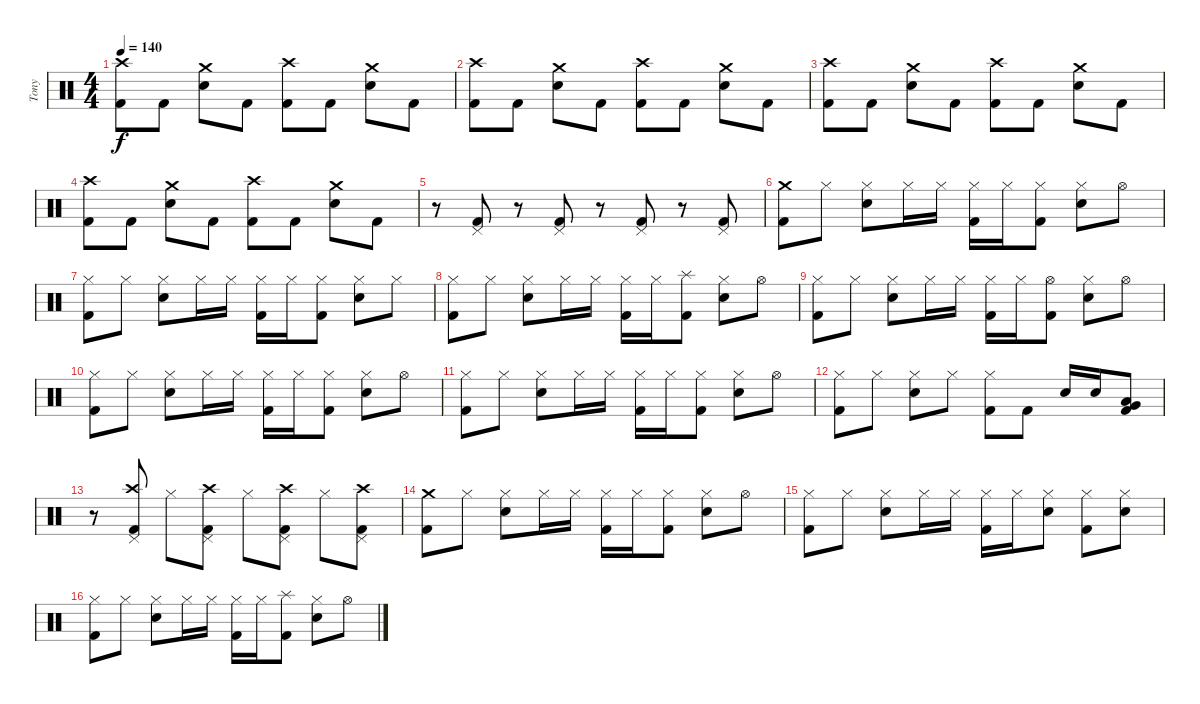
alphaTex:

\track ("Tony" "Tony") {instrument percussion}
\staff {score}
\articulation defaults
\ts (4 4)
\tempo 140
\clef neutral
\ks c
("Kick (hit) 2" "Crash high (hit)").8{dy f} "Kick (hit) 2".8 ("Electric Snare (hit)" "Crash medium (hit)").8 "Kick (hit) 2".8 ("Kick (hit) 2" "Crash high (hit)").8 "Kick (hit) 2".8 ("Electric Snare (hit)" "Crash medium (hit)").8 "Kick (hit) 2".8 |
("Kick (hit) 2" "Crash high (hit)").8 "Kick (hit) 2".8 ("Electric Snare (hit)" "Crash medium (hit)").8 "Kick (hit) 2".8 ("Kick (hit) 2" "Crash high (hit)").8 "Kick (hit) 2".8 ("Electric Snare (hit)" "Crash medium (hit)").8 "Kick (hit) 2".8 |
("Kick (hit) 2" "Crash high (hit)").8 "Kick (hit) 2".8 ("Electric Snare (hit)" "Crash medium (hit)").8 "Kick (hit) 2".8 ("Kick (hit) 2" "Crash high (hit)").8 "Kick (hit) 2".8 ("Electric Snare (hit)" "Crash medium (hit)").8 "Kick (hit) 2".8 |
("Kick (hit) 2" "Crash high (hit)").8 "Kick (hit) 2".8 ("Electric Snare (hit)" "Crash medium (hit)").8 "Kick (hit) 2".8 ("Kick (hit) 2" "Crash high (hit)").8 "Kick (hit) 2".8 ("Electric Snare (hit)" "Crash medium (hit)").8 "Kick (hit) 2".8 |
r.8 ("Kick (hit) 2" "Pedal Hi-Hat (hit)").8 r.8 ("Kick (hit) 2" "Pedal Hi-Hat (hit)").8 r.8 ("Kick (hit) 2" "Pedal Hi-Hat (hit)").8 r.8 ("Kick (hit) 2" "Pedal Hi-Hat (hit)").8 |
("Crash medium (hit)" "Kick (hit) 2").8 "Hi-Hat (closed)".8 ("Hi-Hat (closed)" "Electric Snare (hit)").8 "Hi-Hat (closed)".16 "Hi-Hat (closed)".16 ("Hi-Hat (closed)" "Kick (hit) 2").16 "Hi-Hat (closed)".16 ("Hi-Hat (closed)" "Kick (hit) 2").8 ("Hi-Hat (closed)" "Electric Snare (hit)").8 "Hi-Hat (open)".8 |
("Hi-Hat (closed)" "Kick (hit) 2").8 "Hi-Hat (closed)".8 ("Hi-Hat (closed)" "Electric Snare (hit)").8 "Hi-Hat (closed)".16 "Hi-Hat (closed)".16 ("Hi-Hat (closed)" "Kick (hit) 2").16 "Hi-Hat (closed)".16 ("Hi-Hat (closed)" "Kick (hit) 2").8 ("Hi-Hat (closed)" "Electric Snare (hit)").8 "Hi-Hat (closed)".8 |
("Hi-Hat (closed)" "Kick (hit) 2").8 "Hi-Hat (closed)".8 ("Hi-Hat (closed)" "Electric Snare (hit)").8 "Hi-Hat (closed)".16 "Hi-Hat (closed)".16 ("Hi-Hat (closed)" "Kick (hit) 2").16 "Hi-Hat (closed)".16 ("Splash (hit)" "Kick (hit) 2").8 ("Hi-Hat (closed)" "Electric Snare (hit)").8 "Hi-Hat (open)".8 |
("Hi-Hat (closed)" "Kick (hit) 2").8 "Hi-Hat (closed)".8 ("Hi-Hat (closed)" "Electric Snare (hit)").8 "Hi-Hat (closed)".16 "Hi-Hat (closed)".16 ("Hi-Hat (closed)" "Kick (hit) 2").16 "Hi-Hat (closed)".16 ("Hi-Hat (open)" "Kick (hit) 2").8 ("Hi-Hat (closed)" "Electric Snare (hit)").8 "Hi-Hat (open)".8 |
("Hi-Hat (closed)" "Kick (hit) 2").8 "Hi-Hat (closed)".8 ("Hi-Hat (closed)" "Electric Snare (hit)").8 "Hi-Hat (closed)".16 "Hi-Hat (closed)".16 ("Hi-Hat (closed)" "Kick (hit) 2").16 "Hi-Hat (closed)".16 ("Hi-Hat (closed)" "Kick (hit) 2").8 ("Hi-Hat (closed)" "Electric Snare (hit)").8 "Hi-Hat (open)".8 |
("Hi-Hat (closed)" "Kick (hit) 2").8 "Hi-Hat (closed)".8 ("Hi-Hat (closed)" "Electric Snare (hit)").8 "Hi-Hat (closed)".16 "Hi-Hat (closed)".16 ("Hi-Hat (closed)" "Kick (hit) 2").16 "Hi-Hat (closed)".16 ("Hi-Hat (closed)" "Kick (hit) 2").8 ("Hi-Hat (closed)" "Electric Snare (hit)").8 "Hi-Hat (open)".8 |
("Hi-Hat (closed)" "Kick (hit) 2").8 "Hi-Hat (closed)".8 ("Hi-Hat (closed)" "Electric Snare (hit)").8 "Hi-Hat (closed)".8 ("Hi-Hat (closed)" "Kick (hit) 2").8 "Kick (hit) 2".8 "Electric Snare (hit)".16 "Electric Snare (hit)".16 ("Low Tom (hit)" "Very Low Tom (hit)" "Kick (hit) 2").8 |
r.8 ("Kick (hit) 2" "Pedal Hi-Hat (hit)" "Crash high (hit)").8 "Hi-Hat (closed)".8 ("Kick (hit) 2" "Pedal Hi-Hat (hit)" "Crash high (hit)").8 "Hi-Hat (closed)".8 ("Kick (hit) 2" "Pedal Hi-Hat (hit)" "Crash high (hit)").8 "Hi-Hat (closed)".8 ("Kick (hit) 2" "Pedal Hi-Hat (hit)" "Crash high (hit)").8 |
("Crash medium (hit)" "Kick (hit) 2").8 "Hi-Hat (closed)".8 ("Hi-Hat (closed)" "Electric Snare (hit)").8 "Hi-Hat (closed)".16 "Hi-Hat (closed)".16 ("Hi-Hat (closed)" "Kick (hit) 2").16 "Hi-Hat (closed)".16 ("Hi-Hat (closed)" "Kick (hit) 2").8 ("Hi-Hat (closed)" "Electric Snare (hit)").8 "Hi-Hat (open)".8 |
("Hi-Hat (closed)" "Kick (hit) 2").8 "Hi-Hat (closed)".8 ("Hi-Hat (closed)" "Electric Snare (hit)").8 "Hi-Hat (closed)".16 "Hi-Hat (closed)".16 ("Hi-Hat (closed)" "Kick (hit) 2").16 "Hi-Hat (closed)".16 ("Hi-Hat (closed)" "Electric Snare (hit)").8 ("Hi-Hat (closed)" "Kick (hit) 2").8 ("Hi-Hat (closed)" "Electric Snare (hit)").8 |
("Hi-Hat (closed)" "Kick (hit) 2").8 "Hi-Hat (closed)".8 ("Hi-Hat (closed)" "Electric Snare (hit)").8 "Hi-Hat (closed)".16 "Hi-Hat (closed)".16 ("Hi-Hat (closed)" "Kick (hit) 2").16 "Hi-Hat (closed)".16 ("Splash (hit)" "Kick (hit) 2").8 ("Hi-Hat (closed)" "Electric Snare (hit)").8 "Hi-Hat (open)".8
